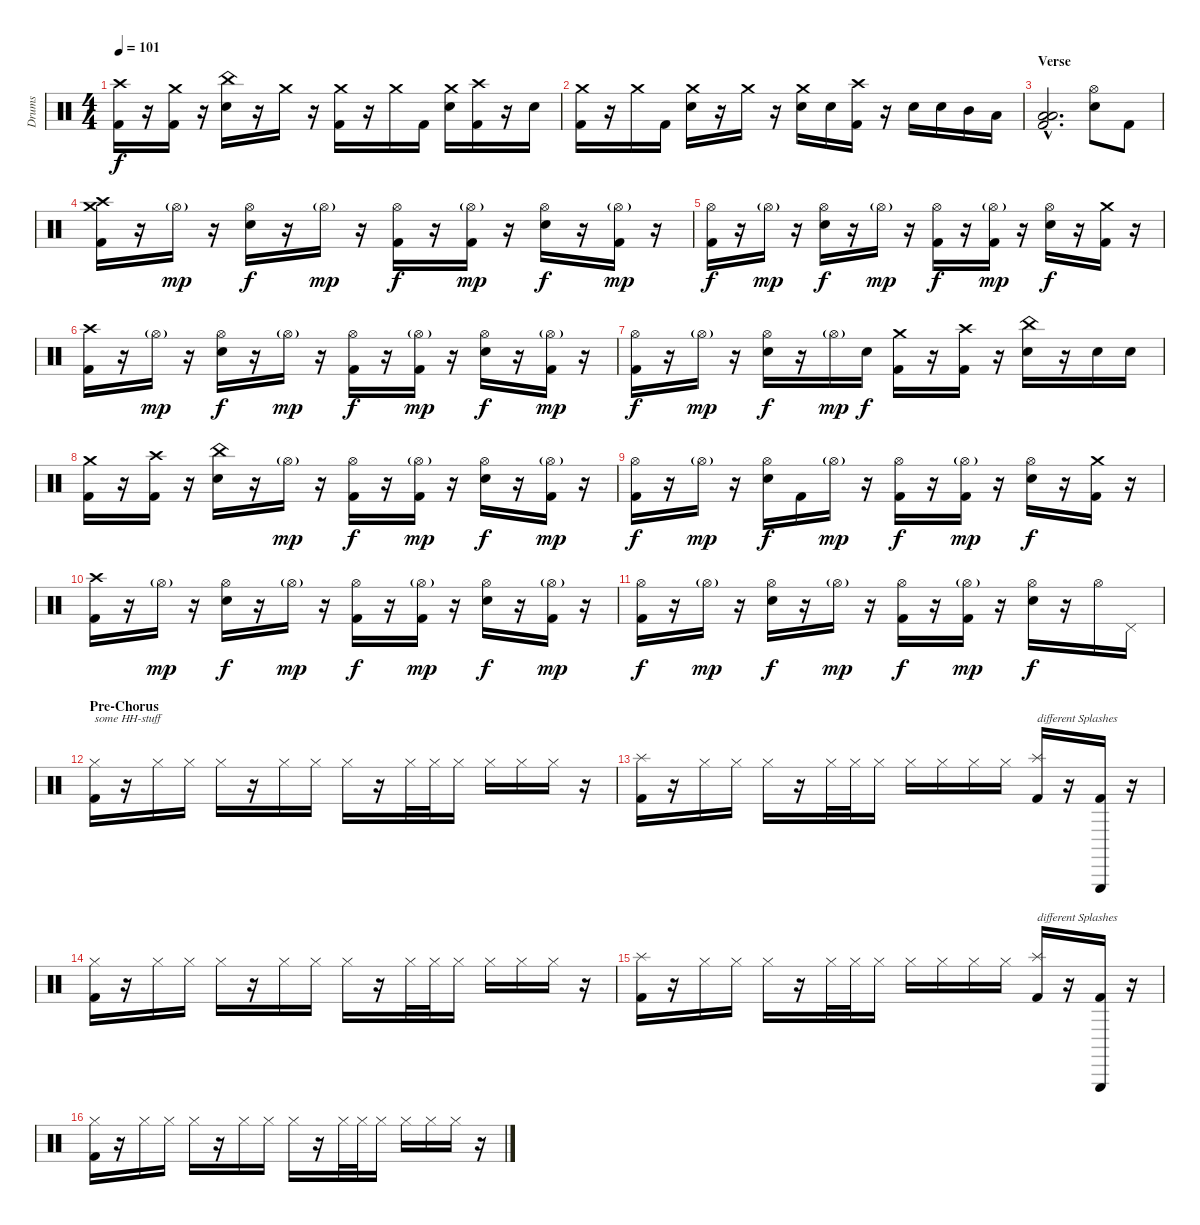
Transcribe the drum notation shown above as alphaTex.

\track ("Drums" "Drums") {instrument percussion}
\staff {score}
\articulation defaults
\ts (4 4)
\tempo 101
\clef neutral
\ks c
("Crash high (hit)" "Kick (hit) 2").16{dy f} r.16 ("Crash medium (hit)" "Kick (hit) 2").16 r.16 ("China (hit)" "Electric Snare (hit)").16 r.16 "Crash medium (hit)".16 r.16 ("Crash medium (hit)" "Kick (hit) 2").16 r.16 "Crash medium (hit)".16 "Kick (hit) 2".16 ("Crash medium (hit)" "Electric Snare (hit)").16 ("Crash high (hit)" "Kick (hit) 2").16 r.16 "Electric Snare (hit)".16 |
("Crash medium (hit)" "Kick (hit) 2").16 r.16 "Crash medium (hit)".16 "Kick (hit) 2".16 ("Crash medium (hit)" "Electric Snare (hit)").16 r.16 "Crash medium (hit)".16 r.16 ("Crash medium (hit)" "Electric Snare (hit)").16 "Electric Snare (hit)".16 ("Crash high (hit)" "Kick (hit) 2").16 r.16 "Electric Snare (hit)".16 "Electric Snare (hit)".16 "Mid Tom (hit)".16 "Low Tom (hit)".16 |
\section ("" "Verse")
("Low Tom (hit)"{hac} "Low Floor Tom (hit)"{hac} "Kick (hit) 2"{hac}).2{d} ("Hi-Hat (open)" "Electric Snare (hit)").8 "Kick (hit) 2".8 |
("Crash medium (hit)" "Crash high (hit)" "Kick (hit) 2").16 r.16 "Hi-Hat (open)"{g}.16{dy mp} r.16 ("Hi-Hat (open)" "Electric Snare (hit)").16{dy f} r.16 "Hi-Hat (open)"{g}.16{dy mp} r.16 ("Hi-Hat (open)" "Kick (hit) 2").16{dy f} r.16 ("Hi-Hat (open)"{g} "Kick (hit) 2").16{dy mp} r.16 ("Hi-Hat (open)" "Electric Snare (hit)").16{dy f} r.16 ("Hi-Hat (open)"{g} "Kick (hit) 2").16{dy mp} r.16 |
("Hi-Hat (open)" "Kick (hit) 2").16{dy f} r.16 "Hi-Hat (open)"{g}.16{dy mp} r.16 ("Hi-Hat (open)" "Electric Snare (hit)").16{dy f} r.16 "Hi-Hat (open)"{g}.16{dy mp} r.16 ("Hi-Hat (open)" "Kick (hit) 2").16{dy f} r.16 ("Hi-Hat (open)"{g} "Kick (hit) 2").16{dy mp} r.16 ("Hi-Hat (open)" "Electric Snare (hit)").16{dy f} r.16 ("Crash medium (hit)" "Kick (hit) 2").16 r.16 |
("Crash high (hit)" "Kick (hit) 2").16 r.16 "Hi-Hat (open)"{g}.16{dy mp} r.16 ("Hi-Hat (open)" "Electric Snare (hit)").16{dy f} r.16 "Hi-Hat (open)"{g}.16{dy mp} r.16 ("Hi-Hat (open)" "Kick (hit) 2").16{dy f} r.16 ("Hi-Hat (open)"{g} "Kick (hit) 2").16{dy mp} r.16 ("Hi-Hat (open)" "Electric Snare (hit)").16{dy f} r.16 ("Hi-Hat (open)"{g} "Kick (hit) 2").16{dy mp} r.16 |
("Hi-Hat (open)" "Kick (hit) 2").16{dy f} r.16 "Hi-Hat (open)"{g}.16{dy mp} r.16 ("Hi-Hat (open)" "Electric Snare (hit)").16{dy f} r.16 "Hi-Hat (open)"{g}.16{dy mp} "Electric Snare (hit)".16{dy f} ("Crash medium (hit)" "Kick (hit) 2").16 r.16 ("Crash high (hit)" "Kick (hit) 2").16 r.16 ("China (hit)" "Electric Snare (hit)").16 r.16 "Electric Snare (hit)".16 "Electric Snare (hit)".16 |
("Crash medium (hit)" "Kick (hit) 2").16 r.16 ("Crash high (hit)" "Kick (hit) 2").16 r.16 ("China (hit)" "Electric Snare (hit)").16 r.16 "Hi-Hat (open)"{g}.16{dy mp} r.16 ("Hi-Hat (open)" "Kick (hit) 2").16{dy f} r.16 ("Hi-Hat (open)"{g} "Kick (hit) 2").16{dy mp} r.16 ("Hi-Hat (open)" "Electric Snare (hit)").16{dy f} r.16 ("Hi-Hat (open)"{g} "Kick (hit) 2").16{dy mp} r.16 |
("Hi-Hat (open)" "Kick (hit) 2").16{dy f} r.16 "Hi-Hat (open)"{g}.16{dy mp} r.16 ("Hi-Hat (open)" "Electric Snare (hit)").16{dy f} "Kick (hit) 2".16 "Hi-Hat (open)"{g}.16{dy mp} r.16 ("Hi-Hat (open)" "Kick (hit) 2").16{dy f} r.16 ("Hi-Hat (open)"{g} "Kick (hit) 2").16{dy mp} r.16 ("Hi-Hat (open)" "Electric Snare (hit)").16{dy f} r.16 ("Crash medium (hit)" "Kick (hit) 2").16 r.16 |
("Crash high (hit)" "Kick (hit) 2").16 r.16 "Hi-Hat (open)"{g}.16{dy mp} r.16 ("Hi-Hat (open)" "Electric Snare (hit)").16{dy f} r.16 "Hi-Hat (open)"{g}.16{dy mp} r.16 ("Hi-Hat (open)" "Kick (hit) 2").16{dy f} r.16 ("Hi-Hat (open)"{g} "Kick (hit) 2").16{dy mp} r.16 ("Hi-Hat (open)" "Electric Snare (hit)").16{dy f} r.16 ("Hi-Hat (open)"{g} "Kick (hit) 2").16{dy mp} r.16 |
("Hi-Hat (open)" "Kick (hit) 2").16{dy f} r.16 "Hi-Hat (open)"{g}.16{dy mp} r.16 ("Hi-Hat (open)" "Electric Snare (hit)").16{dy f} r.16 "Hi-Hat (open)"{g}.16{dy mp} r.16 ("Hi-Hat (open)" "Kick (hit) 2").16{dy f} r.16 ("Hi-Hat (open)"{g} "Kick (hit) 2").16{dy mp} r.16 ("Hi-Hat (open)" "Electric Snare (hit)").16{dy f} r.16 "Hi-Hat (open)".16 "Pedal Hi-Hat (hit)".16 |
\section ("" "Pre-Chorus")
("Hi-Hat (closed)" "Kick (hit) 2").16{txt "some HH-stuff"} r.16 "Hi-Hat (closed)".16 "Hi-Hat (closed)".16 "Hi-Hat (closed)".16 r.16 "Hi-Hat (closed)".16 "Hi-Hat (closed)".16 "Hi-Hat (closed)".16 r.16 "Hi-Hat (closed)".32 "Hi-Hat (closed)".32 "Hi-Hat (closed)".16 "Hi-Hat (closed)".16 "Hi-Hat (closed)".16 "Hi-Hat (closed)".16 r.16 |
("Splash (hit)" "Kick (hit) 2").16 r.16 "Hi-Hat (closed)".16 "Hi-Hat (closed)".16 "Hi-Hat (closed)".16 r.16 "Hi-Hat (closed)".32 "Hi-Hat (closed)".32 "Hi-Hat (closed)".16 "Hi-Hat (closed)".16 "Hi-Hat (closed)".16 "Hi-Hat (closed)".16 "Hi-Hat (closed)".16 ("Splash (hit)" "Kick (hit) 2").16{txt "different Splashes"} r.16 ("Triangle (hit)" "Kick (hit) 2").16 r.16 |
("Hi-Hat (closed)" "Kick (hit) 2").16 r.16 "Hi-Hat (closed)".16 "Hi-Hat (closed)".16 "Hi-Hat (closed)".16 r.16 "Hi-Hat (closed)".16 "Hi-Hat (closed)".16 "Hi-Hat (closed)".16 r.16 "Hi-Hat (closed)".32 "Hi-Hat (closed)".32 "Hi-Hat (closed)".16 "Hi-Hat (closed)".16 "Hi-Hat (closed)".16 "Hi-Hat (closed)".16 r.16 |
("Splash (hit)" "Kick (hit) 2").16 r.16 "Hi-Hat (closed)".16 "Hi-Hat (closed)".16 "Hi-Hat (closed)".16 r.16 "Hi-Hat (closed)".32 "Hi-Hat (closed)".32 "Hi-Hat (closed)".16 "Hi-Hat (closed)".16 "Hi-Hat (closed)".16 "Hi-Hat (closed)".16 "Hi-Hat (closed)".16 ("Splash (hit)" "Kick (hit) 2").16{txt "different Splashes"} r.16 ("Triangle (hit)" "Kick (hit) 2").16 r.16 |
("Hi-Hat (closed)" "Kick (hit) 2").16 r.16 "Hi-Hat (closed)".16 "Hi-Hat (closed)".16 "Hi-Hat (closed)".16 r.16 "Hi-Hat (closed)".16 "Hi-Hat (closed)".16 "Hi-Hat (closed)".16 r.16 "Hi-Hat (closed)".32 "Hi-Hat (closed)".32 "Hi-Hat (closed)".16 "Hi-Hat (closed)".16 "Hi-Hat (closed)".16 "Hi-Hat (closed)".16 r.16
